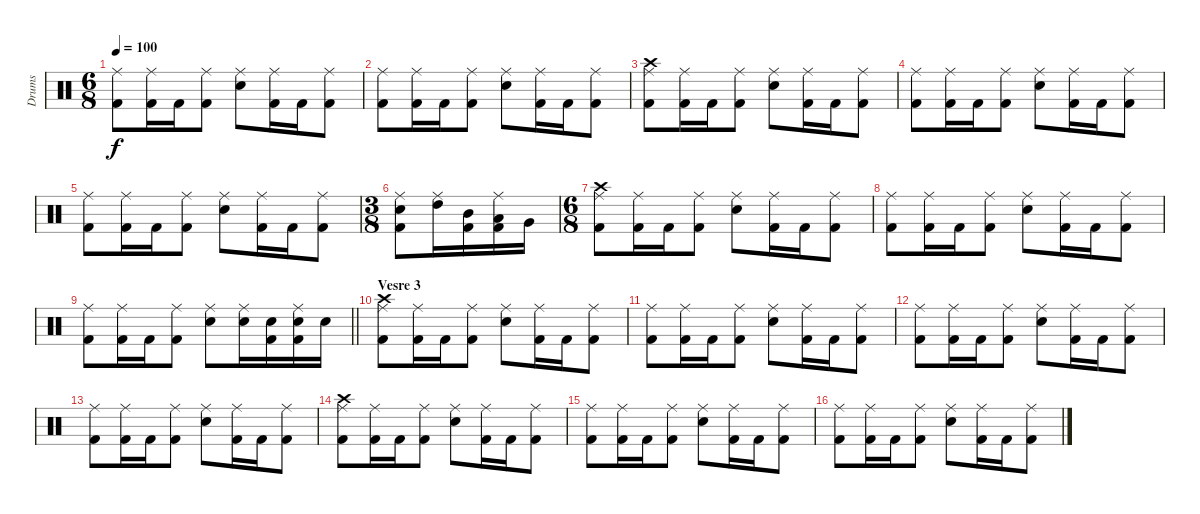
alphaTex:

\track ("Drums" "Drums") {instrument percussion}
\staff {score}
\articulation defaults
\ts (6 8)
\tempo 100
\clef neutral
\ks c
("Ride (middle)" "Kick (hit) 2").8{dy f} ("Ride (middle)" "Kick (hit) 2").16 "Kick (hit) 2".16 ("Ride (middle)" "Kick (hit) 2").8 ("Ride (middle)" "Snare (hit) 2").8 ("Ride (middle)" "Kick (hit) 2").16 "Kick (hit) 2".16 ("Ride (middle)" "Kick (hit) 2").8 |
("Ride (middle)" "Kick (hit) 2").8 ("Ride (middle)" "Kick (hit) 2").16 "Kick (hit) 2".16 ("Ride (middle)" "Kick (hit) 2").8 ("Ride (middle)" "Snare (hit) 2").8 ("Ride (middle)" "Kick (hit) 2").16 "Kick (hit) 2".16 ("Ride (middle)" "Kick (hit) 2").8 |
("Crash high (hit)" "Ride (middle)" "Kick (hit) 2").8 ("Ride (middle)" "Kick (hit) 2").16 "Kick (hit) 2".16 ("Ride (middle)" "Kick (hit) 2").8 ("Ride (middle)" "Snare (hit) 2").8 ("Ride (middle)" "Kick (hit) 2").16 "Kick (hit) 2".16 ("Ride (middle)" "Kick (hit) 2").8 |
("Ride (middle)" "Kick (hit) 2").8 ("Ride (middle)" "Kick (hit) 2").16 "Kick (hit) 2".16 ("Ride (middle)" "Kick (hit) 2").8 ("Ride (middle)" "Snare (hit) 2").8 ("Ride (middle)" "Kick (hit) 2").16 "Kick (hit) 2".16 ("Ride (middle)" "Kick (hit) 2").8 |
("Ride (middle)" "Kick (hit) 2").8 ("Ride (middle)" "Kick (hit) 2").16 "Kick (hit) 2".16 ("Ride (middle)" "Kick (hit) 2").8 ("Ride (middle)" "Snare (hit) 2").8 ("Ride (middle)" "Kick (hit) 2").16 "Kick (hit) 2".16 ("Ride (middle)" "Kick (hit) 2").8 |
\ts (3 8)
("Ride (middle)" "Snare (hit) 2" "Kick (hit) 2").8 ("Ride (middle)" "High Tom (hit)").16 ("Mid Tom (hit)" "Kick (hit) 2").16 ("Ride (middle)" "Low Tom (hit)" "Kick (hit) 2").16 "Very Low Tom (hit)".16 |
\ts (6 8)
("Crash high (hit)" "Ride (middle)" "Kick (hit) 2").8 ("Ride (middle)" "Kick (hit) 2").16 "Kick (hit) 2".16 ("Ride (middle)" "Kick (hit) 2").8 ("Ride (middle)" "Snare (hit) 2").8 ("Ride (middle)" "Kick (hit) 2").16 "Kick (hit) 2".16 ("Ride (middle)" "Kick (hit) 2").8 |
("Ride (middle)" "Kick (hit) 2").8 ("Ride (middle)" "Kick (hit) 2").16 "Kick (hit) 2".16 ("Ride (middle)" "Kick (hit) 2").8 ("Ride (middle)" "Snare (hit) 2").8 ("Ride (middle)" "Kick (hit) 2").16 "Kick (hit) 2".16 ("Ride (middle)" "Kick (hit) 2").8 |
\barLineRight lightlight
("Ride (middle)" "Kick (hit) 2").8 ("Ride (middle)" "Kick (hit) 2").16 "Kick (hit) 2".16 ("Ride (middle)" "Kick (hit) 2").8 ("Ride (middle)" "Snare (hit) 2").8 ("Ride (middle)" "Snare (hit) 2").16 ("Snare (hit) 2" "Kick (hit) 2").16 ("Ride (middle)" "Snare (hit) 2" "Kick (hit) 2").16 "Snare (hit) 2".16 |
\section ("" "Vesre 3")
("Crash high (hit)" "Ride (middle)" "Kick (hit) 2").8 ("Ride (middle)" "Kick (hit) 2").16 "Kick (hit) 2".16 ("Ride (middle)" "Kick (hit) 2").8 ("Ride (middle)" "Snare (hit) 2").8 ("Ride (middle)" "Kick (hit) 2").16 "Kick (hit) 2".16 ("Ride (middle)" "Kick (hit) 2").8 |
("Ride (middle)" "Kick (hit) 2").8 ("Ride (middle)" "Kick (hit) 2").16 "Kick (hit) 2".16 ("Ride (middle)" "Kick (hit) 2").8 ("Ride (middle)" "Snare (hit) 2").8 ("Ride (middle)" "Kick (hit) 2").16 "Kick (hit) 2".16 ("Ride (middle)" "Kick (hit) 2").8 |
("Ride (middle)" "Kick (hit) 2").8 ("Ride (middle)" "Kick (hit) 2").16 "Kick (hit) 2".16 ("Ride (middle)" "Kick (hit) 2").8 ("Ride (middle)" "Snare (hit) 2").8 ("Ride (middle)" "Kick (hit) 2").16 "Kick (hit) 2".16 ("Ride (middle)" "Kick (hit) 2").8 |
("Ride (middle)" "Kick (hit) 2").8 ("Ride (middle)" "Kick (hit) 2").16 "Kick (hit) 2".16 ("Ride (middle)" "Kick (hit) 2").8 ("Ride (middle)" "Snare (hit) 2").8 ("Ride (middle)" "Kick (hit) 2").16 "Kick (hit) 2".16 ("Ride (middle)" "Kick (hit) 2").8 |
("Crash high (hit)" "Ride (middle)" "Kick (hit) 2").8 ("Ride (middle)" "Kick (hit) 2").16 "Kick (hit) 2".16 ("Ride (middle)" "Kick (hit) 2").8 ("Ride (middle)" "Snare (hit) 2").8 ("Ride (middle)" "Kick (hit) 2").16 "Kick (hit) 2".16 ("Ride (middle)" "Kick (hit) 2").8 |
("Ride (middle)" "Kick (hit) 2").8 ("Ride (middle)" "Kick (hit) 2").16 "Kick (hit) 2".16 ("Ride (middle)" "Kick (hit) 2").8 ("Ride (middle)" "Snare (hit) 2").8 ("Ride (middle)" "Kick (hit) 2").16 "Kick (hit) 2".16 ("Ride (middle)" "Kick (hit) 2").8 |
("Ride (middle)" "Kick (hit) 2").8 ("Ride (middle)" "Kick (hit) 2").16 "Kick (hit) 2".16 ("Ride (middle)" "Kick (hit) 2").8 ("Ride (middle)" "Snare (hit) 2").8 ("Ride (middle)" "Kick (hit) 2").16 "Kick (hit) 2".16 ("Ride (middle)" "Kick (hit) 2").8
